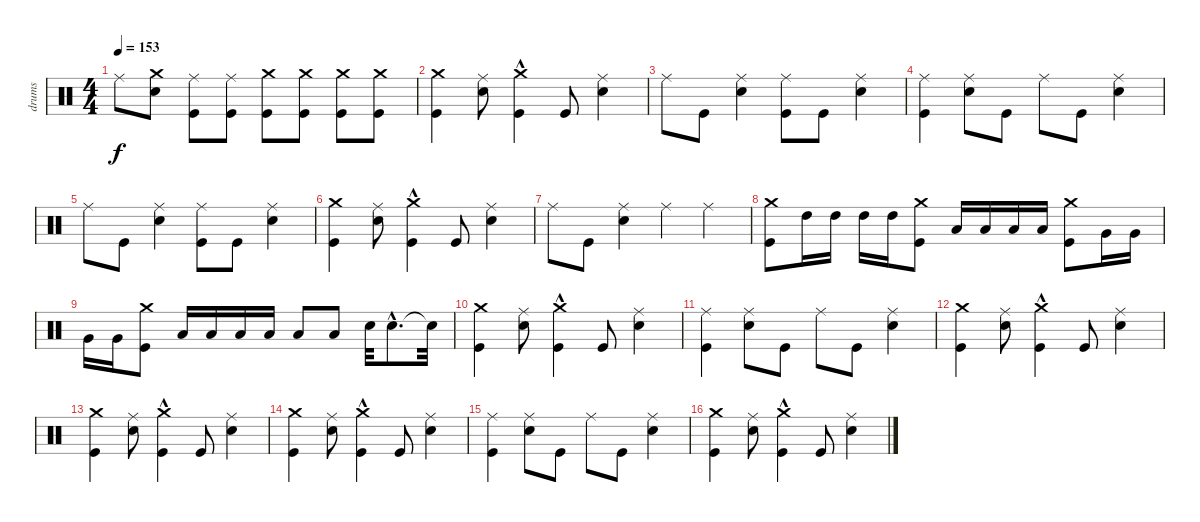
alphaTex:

\track ("drums" "drums") {instrument percussion}
\staff {score}
\articulation defaults
\ts (4 4)
\tempo 153
\clef neutral
\ks c "Ride (middle)".8{dy f}
("Crash medium (hit)" "Snare (hit) 2").8 ("Ride (middle)" "Kick (hit)").8 ("Ride (middle)" "Kick (hit)").8 ("Crash medium (hit)" "Kick (hit)").8 ("Crash medium (hit)" "Kick (hit)").8 ("Crash medium (hit)" "Kick (hit)").8 ("Crash medium (hit)" "Kick (hit)").8 |
("Kick (hit)" "Crash medium (hit)").4 ("Ride (middle)" "Snare (hit) 2").8 ("Crash medium (hit)"{hac} "Kick (hit)").4 "Kick (hit)".8 ("Ride (middle)" "Snare (hit) 2").4 |
"Ride (middle)".8 "Kick (hit)".8 ("Snare (hit) 2" "Ride (middle)").4 ("Ride (middle)" "Kick (hit)").8 "Kick (hit)".8 ("Snare (hit) 2" "Ride (middle)").4 |
("Kick (hit)" "Ride (middle)").4 ("Snare (hit) 2" "Ride (middle)").8 "Kick (hit)".8 "Ride (middle)".8 "Kick (hit)".8 ("Ride (middle)" "Snare (hit) 2").4 |
"Ride (middle)".8 "Kick (hit)".8 ("Snare (hit) 2" "Ride (middle)").4 ("Ride (middle)" "Kick (hit)").8 "Kick (hit)".8 ("Snare (hit) 2" "Ride (middle)").4 |
("Kick (hit)" "Crash medium (hit)").4 ("Ride (middle)" "Snare (hit) 2").8 ("Crash medium (hit)"{hac} "Kick (hit)").4 "Kick (hit)".8 ("Ride (middle)" "Snare (hit) 2").4 |
"Ride (middle)".8 "Kick (hit)".8 ("Snare (hit) 2" "Ride (middle)").4 "Ride (middle)".4 "Ride (middle)".4 |
("Kick (hit)" "Crash medium (hit)").8 "High Tom (hit)".16 "High Tom (hit)".16 "High Tom (hit)".16 "High Tom (hit)".16 ("Kick (hit)" "Crash medium (hit)").8 "Low Tom (hit)".16 "Low Tom (hit)".16 "Low Tom (hit)".16 "Low Tom (hit)".16 ("Kick (hit)" "Crash medium (hit)").8 "Very Low Tom (hit)".16 "Very Low Tom (hit)".16 |
"Very Low Tom (hit)".16 "Very Low Tom (hit)".16 ("Kick (hit)" "Crash medium (hit)").8 "Low Floor Tom (hit)".16 "Low Floor Tom (hit)".16 "Low Floor Tom (hit)".16 "Low Floor Tom (hit)".16 "Low Floor Tom (hit)".8 "Low Floor Tom (hit)".8 "Snare (hit) 2".32 "Snare (hit) 2"{hac}.8{d} "Snare (hit)"{t}.32 |
("Kick (hit)" "Crash medium (hit)").4 ("Ride (middle)" "Snare (hit) 2").8 ("Crash medium (hit)"{hac} "Kick (hit)").4 "Kick (hit)".8 ("Ride (middle)" "Snare (hit) 2").4 |
("Kick (hit)" "Ride (middle)").4 ("Ride (middle)" "Snare (hit) 2").8 "Kick (hit)".8 "Ride (middle)".8 "Kick (hit)".8 ("Ride (middle)" "Snare (hit) 2").4 |
("Kick (hit)" "Crash medium (hit)").4 ("Ride (middle)" "Snare (hit) 2").8 ("Crash medium (hit)"{hac} "Kick (hit)").4 "Kick (hit)".8 ("Ride (middle)" "Snare (hit) 2").4 |
("Kick (hit)" "Crash medium (hit)").4 ("Ride (middle)" "Snare (hit) 2").8 ("Crash medium (hit)"{hac} "Kick (hit)").4 "Kick (hit)".8 ("Ride (middle)" "Snare (hit) 2").4 |
("Kick (hit)" "Crash medium (hit)").4 ("Ride (middle)" "Snare (hit) 2").8 ("Crash medium (hit)"{hac} "Kick (hit)").4 "Kick (hit)".8 ("Ride (middle)" "Snare (hit) 2").4 |
("Kick (hit)" "Ride (middle)").4 ("Ride (middle)" "Snare (hit) 2").8 "Kick (hit)".8 "Ride (middle)".8 "Kick (hit)".8 ("Ride (middle)" "Snare (hit) 2").4 |
("Kick (hit)" "Crash medium (hit)").4 ("Ride (middle)" "Snare (hit) 2").8 ("Crash medium (hit)"{hac} "Kick (hit)").4 "Kick (hit)".8 ("Ride (middle)" "Snare (hit) 2").4
